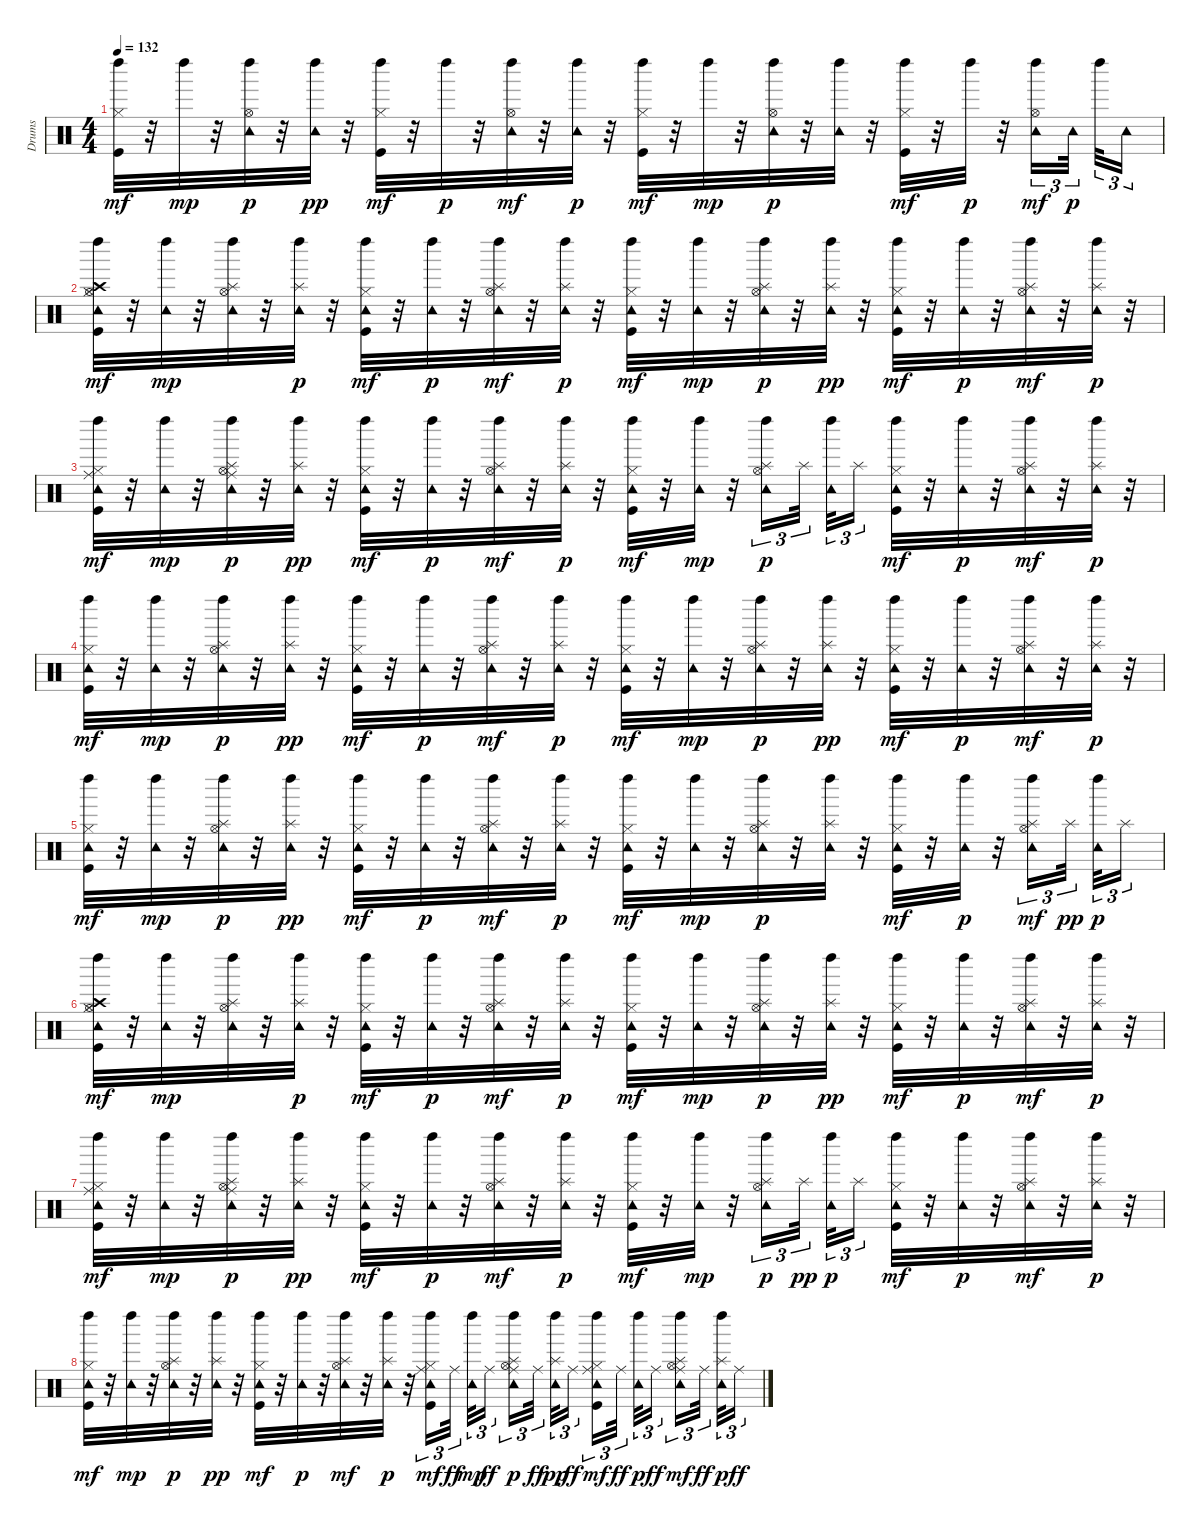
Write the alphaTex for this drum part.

\track ("Drums" "Drums") {instrument percussion}
\staff {score}
\articulation defaults
\ts (4 4)
\tempo 132
\clef neutral
\ks c
("Kick (hit)" "Hi-Hat (closed)" "Left Maraca (hit)").32{dy mf} r.32 "Left Maraca (hit)".32{dy mp} r.32 ("Hi-Hat (open)" "Tambourine (hit)" "Left Maraca (hit)").32{dy p} r.32 ("Tambourine (hit)" "Left Maraca (hit)").32{dy pp} r.32 ("Kick (hit)" "Hi-Hat (closed)" "Left Maraca (hit)").32{dy mf} r.32 "Left Maraca (hit)".32{dy p} r.32 ("Hi-Hat (open)" "Tambourine (hit)" "Left Maraca (hit)").32{dy mf} r.32 ("Tambourine (hit)" "Left Maraca (hit)").32{dy p} r.32 ("Kick (hit)" "Hi-Hat (closed)" "Left Maraca (hit)").32{dy mf} r.32 "Left Maraca (hit)".32{dy mp} r.32 ("Hi-Hat (open)" "Tambourine (hit)" "Left Maraca (hit)").32{dy p} r.32 ("Tambourine (hit)" "Left Maraca (hit)").32 r.32 ("Kick (hit)" "Hi-Hat (closed)" "Left Maraca (hit)").32{dy mf} r.32 "Left Maraca (hit)".32{dy p} r.32 ("Hi-Hat (open)" "Tambourine (hit)" "Left Maraca (hit)").16{tu (3 2) dy mf} "Tambourine (hit)".32{tu (3 2) dy p beam splitsecondary} "Left Maraca (hit)".32{tu (3 2)} "Tambourine (hit)".16{tu (3 2)} |
("Kick (hit)" "Hi-Hat (closed)" "Hi-Hat (open)" "Crash high (hit)" "Tambourine (hit)" "Left Maraca (hit)").32{dy mf} r.32 ("Tambourine (hit)" "Left Maraca (hit)").32{dy mp} r.32 ("Hi-Hat (open)" "Tambourine (hit)" "Splash (hit)" "Left Maraca (hit)").32 r.32 ("Tambourine (hit)" "Splash (hit)" "Left Maraca (hit)").32{dy p} r.32 ("Kick (hit)" "Hi-Hat (closed)" "Tambourine (hit)" "Left Maraca (hit)").32{dy mf} r.32 ("Tambourine (hit)" "Left Maraca (hit)").32{dy p} r.32 ("Hi-Hat (open)" "Tambourine (hit)" "Splash (hit)" "Left Maraca (hit)").32{dy mf} r.32 ("Tambourine (hit)" "Splash (hit)" "Left Maraca (hit)").32{dy p} r.32 ("Kick (hit)" "Hi-Hat (closed)" "Tambourine (hit)" "Left Maraca (hit)").32{dy mf} r.32 ("Tambourine (hit)" "Left Maraca (hit)").32{dy mp} r.32 ("Hi-Hat (open)" "Tambourine (hit)" "Splash (hit)" "Left Maraca (hit)").32{dy p} r.32 ("Tambourine (hit)" "Splash (hit)" "Left Maraca (hit)").32{dy pp} r.32 ("Kick (hit)" "Hi-Hat (closed)" "Tambourine (hit)" "Left Maraca (hit)").32{dy mf} r.32 ("Tambourine (hit)" "Left Maraca (hit)").32{dy p} r.32 ("Hi-Hat (open)" "Tambourine (hit)" "Splash (hit)" "Left Maraca (hit)").32{dy mf} r.32 ("Tambourine (hit)" "Splash (hit)" "Left Maraca (hit)").32{dy p} r.32 |
("Kick (hit)" "Hi-Hat (closed)" "Ride (middle)" "Tambourine (hit)" "Left Maraca (hit)").32{dy mf} r.32 ("Tambourine (hit)" "Left Maraca (hit)").32{dy mp} r.32 ("Hi-Hat (open)" "Ride (middle)" "Tambourine (hit)" "Splash (hit)" "Left Maraca (hit)").32{dy p} r.32 ("Tambourine (hit)" "Splash (hit)" "Left Maraca (hit)").32{dy pp} r.32 ("Kick (hit)" "Hi-Hat (closed)" "Tambourine (hit)" "Left Maraca (hit)").32{dy mf} r.32 ("Tambourine (hit)" "Left Maraca (hit)").32{dy p} r.32 ("Hi-Hat (open)" "Tambourine (hit)" "Splash (hit)" "Left Maraca (hit)").32{dy mf} r.32 ("Tambourine (hit)" "Splash (hit)" "Left Maraca (hit)").32{dy p} r.32 ("Kick (hit)" "Hi-Hat (closed)" "Tambourine (hit)" "Left Maraca (hit)").32{dy mf} r.32 ("Tambourine (hit)" "Left Maraca (hit)").32{dy mp} r.32 ("Hi-Hat (open)" "Tambourine (hit)" "Splash (hit)" "Left Maraca (hit)").16{tu (3 2) dy p} "Splash (hit)".32{tu (3 2) beam splitsecondary} ("Tambourine (hit)" "Left Maraca (hit)").32{tu (3 2)} "Splash (hit)".16{tu (3 2)} ("Kick (hit)" "Hi-Hat (closed)" "Tambourine (hit)" "Left Maraca (hit)").32{dy mf} r.32 ("Tambourine (hit)" "Left Maraca (hit)").32{dy p} r.32 ("Hi-Hat (open)" "Tambourine (hit)" "Splash (hit)" "Left Maraca (hit)").32{dy mf} r.32 ("Tambourine (hit)" "Splash (hit)" "Left Maraca (hit)").32{dy p} r.32 |
("Kick (hit)" "Hi-Hat (closed)" "Tambourine (hit)" "Left Maraca (hit)").32{dy mf} r.32 ("Tambourine (hit)" "Left Maraca (hit)").32{dy mp} r.32 ("Hi-Hat (open)" "Tambourine (hit)" "Splash (hit)" "Left Maraca (hit)").32{dy p} r.32 ("Tambourine (hit)" "Splash (hit)" "Left Maraca (hit)").32{dy pp} r.32 ("Kick (hit)" "Hi-Hat (closed)" "Tambourine (hit)" "Left Maraca (hit)").32{dy mf} r.32 ("Tambourine (hit)" "Left Maraca (hit)").32{dy p} r.32 ("Hi-Hat (open)" "Tambourine (hit)" "Splash (hit)" "Left Maraca (hit)").32{dy mf} r.32 ("Tambourine (hit)" "Splash (hit)" "Left Maraca (hit)").32{dy p} r.32 ("Kick (hit)" "Hi-Hat (closed)" "Tambourine (hit)" "Left Maraca (hit)").32{dy mf} r.32 ("Tambourine (hit)" "Left Maraca (hit)").32{dy mp} r.32 ("Hi-Hat (open)" "Tambourine (hit)" "Splash (hit)" "Left Maraca (hit)").32{dy p} r.32 ("Tambourine (hit)" "Splash (hit)" "Left Maraca (hit)").32{dy pp} r.32 ("Kick (hit)" "Hi-Hat (closed)" "Tambourine (hit)" "Left Maraca (hit)").32{dy mf} r.32 ("Tambourine (hit)" "Left Maraca (hit)").32{dy p} r.32 ("Hi-Hat (open)" "Tambourine (hit)" "Splash (hit)" "Left Maraca (hit)").32{dy mf} r.32 ("Tambourine (hit)" "Splash (hit)" "Left Maraca (hit)").32{dy p} r.32 |
("Kick (hit)" "Hi-Hat (closed)" "Tambourine (hit)" "Left Maraca (hit)").32{dy mf} r.32 ("Tambourine (hit)" "Left Maraca (hit)").32{dy mp} r.32 ("Hi-Hat (open)" "Tambourine (hit)" "Splash (hit)" "Left Maraca (hit)").32{dy p} r.32 ("Tambourine (hit)" "Splash (hit)" "Left Maraca (hit)").32{dy pp} r.32 ("Kick (hit)" "Hi-Hat (closed)" "Tambourine (hit)" "Left Maraca (hit)").32{dy mf} r.32 ("Tambourine (hit)" "Left Maraca (hit)").32{dy p} r.32 ("Hi-Hat (open)" "Tambourine (hit)" "Splash (hit)" "Left Maraca (hit)").32{dy mf} r.32 ("Tambourine (hit)" "Splash (hit)" "Left Maraca (hit)").32{dy p} r.32 ("Kick (hit)" "Hi-Hat (closed)" "Tambourine (hit)" "Left Maraca (hit)").32{dy mf} r.32 ("Tambourine (hit)" "Left Maraca (hit)").32{dy mp} r.32 ("Hi-Hat (open)" "Tambourine (hit)" "Splash (hit)" "Left Maraca (hit)").32{dy p} r.32 ("Tambourine (hit)" "Splash (hit)" "Left Maraca (hit)").32 r.32 ("Kick (hit)" "Hi-Hat (closed)" "Tambourine (hit)" "Left Maraca (hit)").32{dy mf} r.32 ("Tambourine (hit)" "Left Maraca (hit)").32{dy p} r.32 ("Hi-Hat (open)" "Tambourine (hit)" "Splash (hit)" "Left Maraca (hit)").16{tu (3 2) dy mf} "Splash (hit)".32{tu (3 2) dy pp beam splitsecondary} ("Tambourine (hit)" "Left Maraca (hit)").32{tu (3 2) dy p} "Splash (hit)".16{tu (3 2)} |
("Kick (hit)" "Hi-Hat (closed)" "Hi-Hat (open)" "Crash high (hit)" "Tambourine (hit)" "Left Maraca (hit)").32{dy mf} r.32 ("Tambourine (hit)" "Left Maraca (hit)").32{dy mp} r.32 ("Hi-Hat (open)" "Tambourine (hit)" "Splash (hit)" "Left Maraca (hit)").32 r.32 ("Tambourine (hit)" "Splash (hit)" "Left Maraca (hit)").32{dy p} r.32 ("Kick (hit)" "Hi-Hat (closed)" "Tambourine (hit)" "Left Maraca (hit)").32{dy mf} r.32 ("Tambourine (hit)" "Left Maraca (hit)").32{dy p} r.32 ("Hi-Hat (open)" "Tambourine (hit)" "Splash (hit)" "Left Maraca (hit)").32{dy mf} r.32 ("Tambourine (hit)" "Splash (hit)" "Left Maraca (hit)").32{dy p} r.32 ("Kick (hit)" "Hi-Hat (closed)" "Tambourine (hit)" "Left Maraca (hit)").32{dy mf} r.32 ("Tambourine (hit)" "Left Maraca (hit)").32{dy mp} r.32 ("Hi-Hat (open)" "Tambourine (hit)" "Splash (hit)" "Left Maraca (hit)").32{dy p} r.32 ("Tambourine (hit)" "Splash (hit)" "Left Maraca (hit)").32{dy pp} r.32 ("Kick (hit)" "Hi-Hat (closed)" "Tambourine (hit)" "Left Maraca (hit)").32{dy mf} r.32 ("Tambourine (hit)" "Left Maraca (hit)").32{dy p} r.32 ("Hi-Hat (open)" "Tambourine (hit)" "Splash (hit)" "Left Maraca (hit)").32{dy mf} r.32 ("Tambourine (hit)" "Splash (hit)" "Left Maraca (hit)").32{dy p} r.32 |
("Kick (hit)" "Hi-Hat (closed)" "Ride (middle)" "Tambourine (hit)" "Left Maraca (hit)").32{dy mf} r.32 ("Tambourine (hit)" "Left Maraca (hit)").32{dy mp} r.32 ("Hi-Hat (open)" "Ride (middle)" "Tambourine (hit)" "Splash (hit)" "Left Maraca (hit)").32{dy p} r.32 ("Tambourine (hit)" "Splash (hit)" "Left Maraca (hit)").32{dy pp} r.32 ("Kick (hit)" "Hi-Hat (closed)" "Tambourine (hit)" "Left Maraca (hit)").32{dy mf} r.32 ("Tambourine (hit)" "Left Maraca (hit)").32{dy p} r.32 ("Hi-Hat (open)" "Tambourine (hit)" "Splash (hit)" "Left Maraca (hit)").32{dy mf} r.32 ("Tambourine (hit)" "Splash (hit)" "Left Maraca (hit)").32{dy p} r.32 ("Kick (hit)" "Hi-Hat (closed)" "Tambourine (hit)" "Left Maraca (hit)").32{dy mf} r.32 ("Tambourine (hit)" "Left Maraca (hit)").32{dy mp} r.32 ("Hi-Hat (open)" "Tambourine (hit)" "Splash (hit)" "Left Maraca (hit)").16{tu (3 2) dy p} "Splash (hit)".32{tu (3 2) dy pp beam splitsecondary} ("Tambourine (hit)" "Left Maraca (hit)").32{tu (3 2) dy p} "Splash (hit)".16{tu (3 2)} ("Kick (hit)" "Hi-Hat (closed)" "Tambourine (hit)" "Left Maraca (hit)").32{dy mf} r.32 ("Tambourine (hit)" "Left Maraca (hit)").32{dy p} r.32 ("Hi-Hat (open)" "Tambourine (hit)" "Splash (hit)" "Left Maraca (hit)").32{dy mf} r.32 ("Tambourine (hit)" "Splash (hit)" "Left Maraca (hit)").32{dy p} r.32 |
("Kick (hit)" "Hi-Hat (closed)" "Tambourine (hit)" "Left Maraca (hit)").32{dy mf} r.32 ("Tambourine (hit)" "Left Maraca (hit)").32{dy mp} r.32 ("Hi-Hat (open)" "Tambourine (hit)" "Splash (hit)" "Left Maraca (hit)").32{dy p} r.32 ("Tambourine (hit)" "Splash (hit)" "Left Maraca (hit)").32{dy pp} r.32 ("Kick (hit)" "Hi-Hat (closed)" "Tambourine (hit)" "Left Maraca (hit)").32{dy mf} r.32 ("Tambourine (hit)" "Left Maraca (hit)").32{dy p} r.32 ("Hi-Hat (open)" "Tambourine (hit)" "Splash (hit)" "Left Maraca (hit)").32{dy mf} r.32 ("Tambourine (hit)" "Splash (hit)" "Left Maraca (hit)").32{dy p} r.32 ("Kick (hit)" "Hi-Hat (closed)" "Ride (middle)" "Tambourine (hit)" "Left Maraca (hit)").16{tu (3 2) dy mf} "Ride (middle)".32{tu (3 2) dy ff beam splitsecondary} ("Tambourine (hit)" "Left Maraca (hit)").32{tu (3 2) dy mp} "Ride (middle)".16{tu (3 2) dy ff beam splitsecondary} ("Hi-Hat (open)" "Ride (middle)" "Tambourine (hit)" "Splash (hit)" "Left Maraca (hit)").16{tu (3 2) dy p} "Ride (middle)".32{tu (3 2) dy ff beam splitsecondary} ("Tambourine (hit)" "Splash (hit)" "Left Maraca (hit)").32{tu (3 2) dy pp} "Ride (middle)".16{tu (3 2) dy ff} ("Kick (hit)" "Hi-Hat (closed)" "Ride (middle)" "Tambourine (hit)" "Left Maraca (hit)").16{tu (3 2) dy mf} "Ride (middle)".32{tu (3 2) dy ff beam splitsecondary} ("Tambourine (hit)" "Left Maraca (hit)").32{tu (3 2) dy p} "Ride (middle)".16{tu (3 2) dy ff beam splitsecondary} ("Hi-Hat (open)" "Ride (middle)" "Tambourine (hit)" "Splash (hit)" "Left Maraca (hit)").16{tu (3 2) dy mf} "Ride (middle)".32{tu (3 2) dy ff beam splitsecondary} ("Tambourine (hit)" "Splash (hit)" "Left Maraca (hit)").32{tu (3 2) dy p} "Ride (middle)".16{tu (3 2) dy ff}
